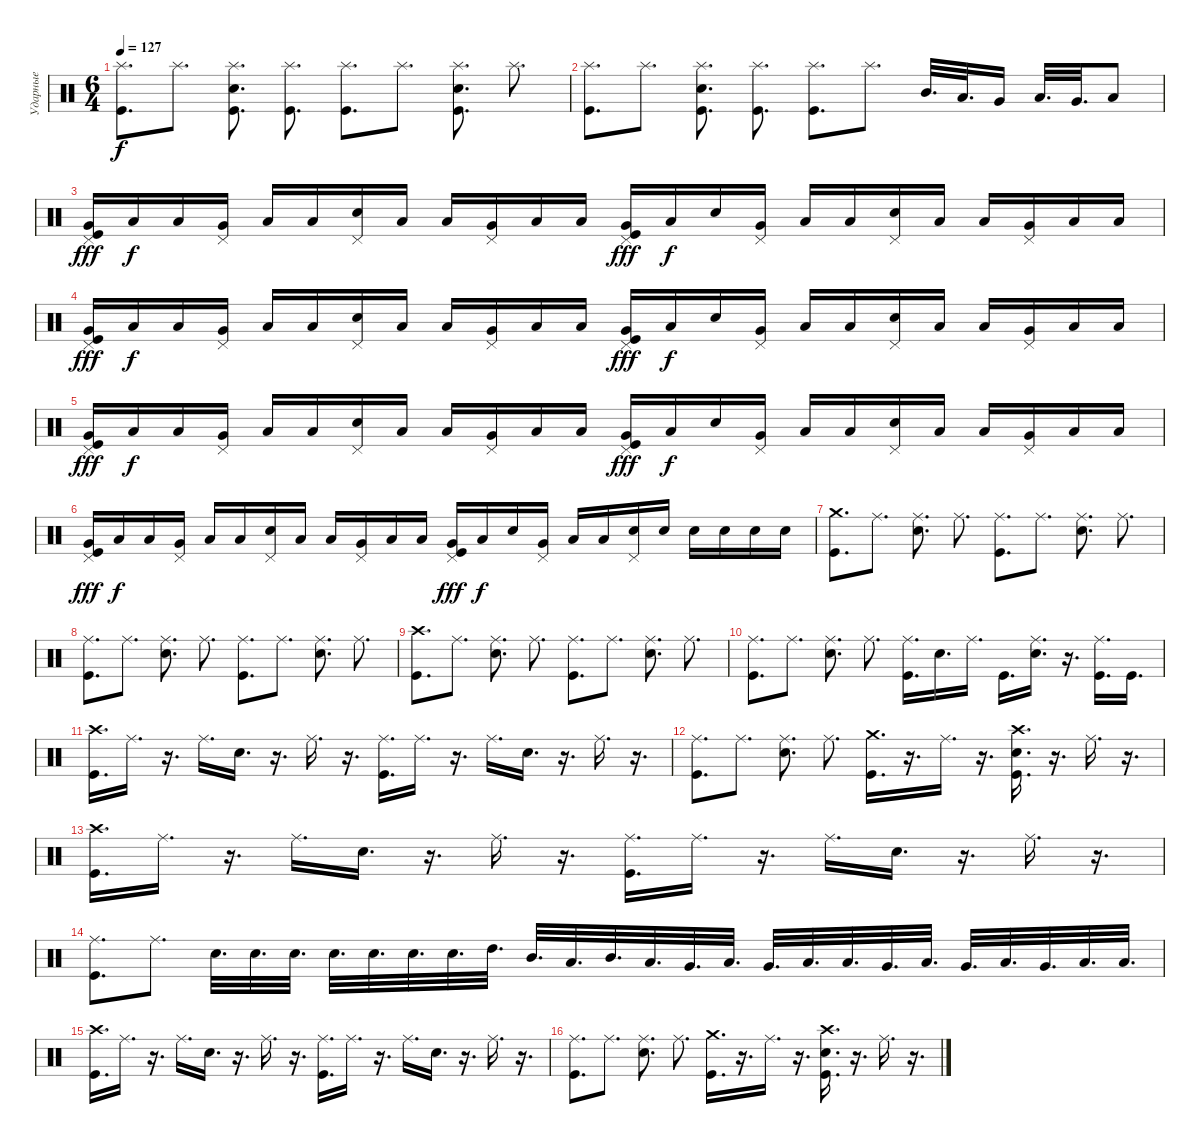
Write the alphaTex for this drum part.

\track ("Ударные" "Ударные") {instrument percussion}
\staff {score}
\articulation defaults
\ts (6 4)
\tempo 127
\clef neutral
\ks c
("Splash (hit)" "Kick (hit)").8{d dy f} "Splash (hit)".8{d} ("Splash (hit)" "Electric Snare (hit)" "Kick (hit)").8{d} ("Splash (hit)" "Kick (hit)").8{d} ("Splash (hit)" "Kick (hit)").8{d} "Splash (hit)".8{d} ("Splash (hit)" "Electric Snare (hit)" "Kick (hit)").8{d} "Splash (hit)".8{d} |
("Splash (hit)" "Kick (hit)").8{d} "Splash (hit)".8{d} ("Splash (hit)" "Electric Snare (hit)" "Kick (hit)").8{d} ("Splash (hit)" "Kick (hit)").8{d} ("Splash (hit)" "Kick (hit)").8{d} "Splash (hit)".8{d} "Mid Tom (hit)".32{d} "Low Tom (hit)".32{d} "Very Low Tom (hit)".16 "Low Tom (hit)".32{d} "Very Low Tom (hit)".32{d} "Low Floor Tom (hit)".8 |
("Very Low Tom (hit)" "Pedal Hi-Hat (hit)" "Kick (hit)").16{dy fff} "Low Floor Tom (hit)".16{dy f} "Low Floor Tom (hit)".16 ("Very Low Tom (hit)" "Pedal Hi-Hat (hit)").16 "Low Floor Tom (hit)".16 "Low Floor Tom (hit)".16 ("Pedal Hi-Hat (hit)" "Electric Snare (hit)").16 "Low Floor Tom (hit)".16 "Low Floor Tom (hit)".16 ("Very Low Tom (hit)" "Pedal Hi-Hat (hit)").16 "Low Floor Tom (hit)".16 "Low Floor Tom (hit)".16 ("Very Low Tom (hit)" "Pedal Hi-Hat (hit)" "Kick (hit)").16{dy fff} "Low Floor Tom (hit)".16{dy f} "Snare (hit)".16 ("Very Low Tom (hit)" "Pedal Hi-Hat (hit)").16 "Low Floor Tom (hit)".16 "Low Floor Tom (hit)".16 ("Pedal Hi-Hat (hit)" "Electric Snare (hit)").16 "Low Floor Tom (hit)".16 "Low Floor Tom (hit)".16 ("Very Low Tom (hit)" "Pedal Hi-Hat (hit)").16 "Low Floor Tom (hit)".16 "Low Floor Tom (hit)".16 |
("Very Low Tom (hit)" "Pedal Hi-Hat (hit)" "Kick (hit)").16{dy fff} "Low Floor Tom (hit)".16{dy f} "Low Floor Tom (hit)".16 ("Very Low Tom (hit)" "Pedal Hi-Hat (hit)").16 "Low Floor Tom (hit)".16 "Low Floor Tom (hit)".16 ("Pedal Hi-Hat (hit)" "Electric Snare (hit)").16 "Low Floor Tom (hit)".16 "Low Floor Tom (hit)".16 ("Very Low Tom (hit)" "Pedal Hi-Hat (hit)").16 "Low Floor Tom (hit)".16 "Low Floor Tom (hit)".16 ("Very Low Tom (hit)" "Pedal Hi-Hat (hit)" "Kick (hit)").16{dy fff} "Low Floor Tom (hit)".16{dy f} "Snare (hit)".16 ("Very Low Tom (hit)" "Pedal Hi-Hat (hit)").16 "Low Floor Tom (hit)".16 "Low Floor Tom (hit)".16 ("Pedal Hi-Hat (hit)" "Electric Snare (hit)").16 "Low Floor Tom (hit)".16 "Low Floor Tom (hit)".16 ("Very Low Tom (hit)" "Pedal Hi-Hat (hit)").16 "Low Floor Tom (hit)".16 "Low Floor Tom (hit)".16 |
("Very Low Tom (hit)" "Pedal Hi-Hat (hit)" "Kick (hit)").16{dy fff} "Low Floor Tom (hit)".16{dy f} "Low Floor Tom (hit)".16 ("Very Low Tom (hit)" "Pedal Hi-Hat (hit)").16 "Low Floor Tom (hit)".16 "Low Floor Tom (hit)".16 ("Pedal Hi-Hat (hit)" "Electric Snare (hit)").16 "Low Floor Tom (hit)".16 "Low Floor Tom (hit)".16 ("Very Low Tom (hit)" "Pedal Hi-Hat (hit)").16 "Low Floor Tom (hit)".16 "Low Floor Tom (hit)".16 ("Very Low Tom (hit)" "Pedal Hi-Hat (hit)" "Kick (hit)").16{dy fff} "Low Floor Tom (hit)".16{dy f} "Snare (hit)".16 ("Very Low Tom (hit)" "Pedal Hi-Hat (hit)").16 "Low Floor Tom (hit)".16 "Low Floor Tom (hit)".16 ("Pedal Hi-Hat (hit)" "Electric Snare (hit)").16 "Low Floor Tom (hit)".16 "Low Floor Tom (hit)".16 ("Very Low Tom (hit)" "Pedal Hi-Hat (hit)").16 "Low Floor Tom (hit)".16 "Low Floor Tom (hit)".16 |
("Very Low Tom (hit)" "Pedal Hi-Hat (hit)" "Kick (hit)").16{dy fff} "Low Floor Tom (hit)".16{dy f} "Low Floor Tom (hit)".16 ("Very Low Tom (hit)" "Pedal Hi-Hat (hit)").16 "Low Floor Tom (hit)".16 "Low Floor Tom (hit)".16 ("Pedal Hi-Hat (hit)" "Electric Snare (hit)").16 "Low Floor Tom (hit)".16 "Low Floor Tom (hit)".16 ("Very Low Tom (hit)" "Pedal Hi-Hat (hit)").16 "Low Floor Tom (hit)".16 "Low Floor Tom (hit)".16 ("Very Low Tom (hit)" "Pedal Hi-Hat (hit)" "Kick (hit)").16{dy fff} "Low Floor Tom (hit)".16{dy f} "Snare (hit)".16 ("Very Low Tom (hit)" "Pedal Hi-Hat (hit)").16 "Low Floor Tom (hit)".16 "Low Floor Tom (hit)".16 ("Electric Snare (hit)" "Pedal Hi-Hat (hit)").16 "Electric Snare (hit)".16 "Electric Snare (hit)".16 "Electric Snare (hit)".16 "Electric Snare (hit)".16 "Electric Snare (hit)".16 |
("Crash medium (hit)" "Kick (hit)").8{d} "Ride (middle)".8{d} ("Ride (middle)" "Electric Snare (hit)").8{d} "Ride (middle)".8{d} ("Ride (middle)" "Kick (hit)").8{d} "Ride (middle)".8{d} ("Ride (middle)" "Electric Snare (hit)").8{d} "Ride (middle)".8{d} |
("Ride (middle)" "Kick (hit)").8{d} "Ride (middle)".8{d} ("Ride (middle)" "Electric Snare (hit)").8{d} "Ride (middle)".8{d} ("Ride (middle)" "Kick (hit)").8{d} "Ride (middle)".8{d} ("Ride (middle)" "Electric Snare (hit)").8{d} "Ride (middle)".8{d} |
("Crash high (hit)" "Kick (hit)").8{d} "Ride (middle)".8{d} ("Ride (middle)" "Electric Snare (hit)").8{d} "Ride (middle)".8{d} ("Ride (middle)" "Kick (hit)").8{d} "Ride (middle)".8{d} ("Ride (middle)" "Electric Snare (hit)").8{d} "Ride (middle)".8{d} |
("Ride (middle)" "Kick (hit)").8{d} "Ride (middle)".8{d} ("Ride (middle)" "Electric Snare (hit)").8{d} "Ride (middle)".8{d} ("Ride (middle)" "Kick (hit)").16{d} "Electric Snare (hit)".16{d} "Ride (middle)".16{d} "Kick (hit)".16{d} ("Ride (middle)" "Electric Snare (hit)").16{d} r.16{d} ("Ride (middle)" "Kick (hit)").16{d} "Kick (hit)".16{d} |
("Crash high (hit)" "Kick (hit)").16{d} "Ride (middle)".16{d} r.16{d} "Ride (middle)".16{d} "Electric Snare (hit)".16{d} r.16{d} "Ride (middle)".16{d} r.16{d} ("Ride (middle)" "Kick (hit)").16{d} "Ride (middle)".16{d} r.16{d} "Ride (middle)".16{d} "Electric Snare (hit)".16{d} r.16{d} "Ride (middle)".16{d} r.16{d} |
("Ride (middle)" "Kick (hit)").8{d} "Ride (middle)".8{d} ("Ride (middle)" "Electric Snare (hit)").8{d} "Ride (middle)".8{d} ("Crash medium (hit)" "Kick (hit)").16{d} r.16{d} "Ride (middle)".16{d} r.16{d} ("Crash high (hit)" "Electric Snare (hit)" "Kick (hit)").16{d} r.16{d} "Ride (middle)".16{d} r.16{d} |
("Crash high (hit)" "Kick (hit)").16{d} "Ride (middle)".16{d} r.16{d} "Ride (middle)".16{d} "Electric Snare (hit)".16{d} r.16{d} "Ride (middle)".16{d} r.16{d} ("Ride (middle)" "Kick (hit)").16{d} "Ride (middle)".16{d} r.16{d} "Ride (middle)".16{d} "Electric Snare (hit)".16{d} r.16{d} "Ride (middle)".16{d} r.16{d} |
("Ride (middle)" "Kick (hit)").8{d} "Ride (middle)".8{d} "Electric Snare (hit)".32{d} "Electric Snare (hit)".32{d} "Electric Snare (hit)".32{d} "Electric Snare (hit)".32{d} "Electric Snare (hit)".32{d} "Electric Snare (hit)".32{d} "Electric Snare (hit)".32{d} "High Tom (hit)".32{d} "Mid Tom (hit)".32{d} "Low Tom (hit)".32{d} "Mid Tom (hit)".32{d} "Low Tom (hit)".32{d} "Very Low Tom (hit)".32{d} "Low Tom (hit)".32{d} "Very Low Tom (hit)".32{d} "Low Floor Tom (hit)".32{d} "Low Tom (hit)".32{d} "Very Low Tom (hit)".32{d} "Low Floor Tom (hit)".32{d} "Very Low Tom (hit)".32{d} "Low Tom (hit)".32{d} "Very Low Tom (hit)".32{d} "Low Floor Tom (hit)".32{d} "Low Tom (hit)".32{d} |
("Crash high (hit)" "Kick (hit)").16{d} "Ride (middle)".16{d} r.16{d} "Ride (middle)".16{d} "Electric Snare (hit)".16{d} r.16{d} "Ride (middle)".16{d} r.16{d} ("Ride (middle)" "Kick (hit)").16{d} "Ride (middle)".16{d} r.16{d} "Ride (middle)".16{d} "Electric Snare (hit)".16{d} r.16{d} "Ride (middle)".16{d} r.16{d} |
("Ride (middle)" "Kick (hit)").8{d} "Ride (middle)".8{d} ("Ride (middle)" "Electric Snare (hit)").8{d} "Ride (middle)".8{d} ("Crash medium (hit)" "Kick (hit)").16{d} r.16{d} "Ride (middle)".16{d} r.16{d} ("Crash high (hit)" "Electric Snare (hit)" "Kick (hit)").16{d} r.16{d} "Ride (middle)".16{d} r.16{d}
